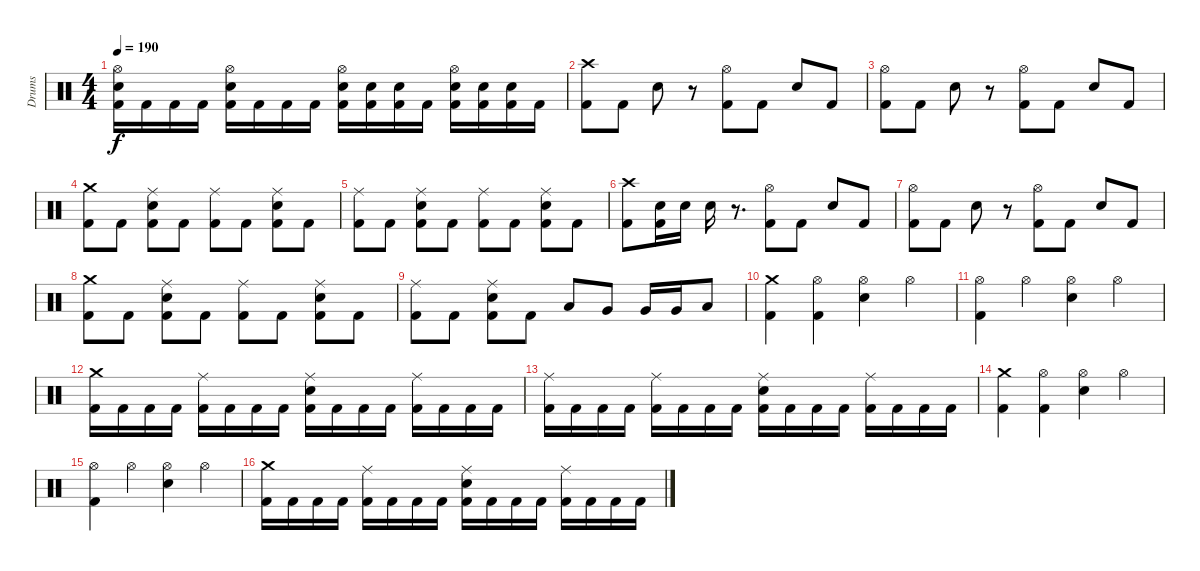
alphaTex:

\track ("Drums" "Drums") {instrument percussion}
\staff {score}
\articulation defaults
\ts (4 4)
\tempo 190
\clef neutral
\ks c
("Hi-Hat (open)" "Electric Snare (hit)" "Kick (hit) 2").16{dy f} "Kick (hit) 2".16 "Kick (hit) 2".16 "Kick (hit) 2".16 ("Hi-Hat (open)" "Electric Snare (hit)" "Kick (hit) 2").16 "Kick (hit) 2".16 "Kick (hit) 2".16 "Kick (hit) 2".16 ("Hi-Hat (open)" "Electric Snare (hit)" "Kick (hit) 2").16 ("Electric Snare (hit)" "Kick (hit) 2").16 ("Electric Snare (hit)" "Kick (hit) 2").16 "Kick (hit) 2".16 ("Hi-Hat (open)" "Electric Snare (hit)" "Kick (hit) 2").16 ("Electric Snare (hit)" "Kick (hit) 2").16 ("Electric Snare (hit)" "Kick (hit) 2").16 "Kick (hit) 2".16 |
("Crash high (hit)" "Kick (hit) 2").8 "Kick (hit) 2".8 "Electric Snare (hit)".8 r.8 ("Hi-Hat (open)" "Kick (hit) 2").8 "Kick (hit) 2".8 "Electric Snare (hit)".8 "Kick (hit) 2".8 |
("Hi-Hat (open)" "Kick (hit) 2").8 "Kick (hit) 2".8 "Electric Snare (hit)".8 r.8 ("Hi-Hat (open)" "Kick (hit) 2").8 "Kick (hit) 2".8 "Electric Snare (hit)".8 "Kick (hit) 2".8 |
("Crash medium (hit)" "Kick (hit) 2").8 "Kick (hit) 2".8 ("Ride (middle)" "Electric Snare (hit)" "Kick (hit) 2").8 "Kick (hit) 2".8 ("Ride (middle)" "Kick (hit) 2").8 "Kick (hit) 2".8 ("Ride (middle)" "Electric Snare (hit)" "Kick (hit) 2").8 "Kick (hit) 2".8 |
("Ride (middle)" "Kick (hit) 2").8 "Kick (hit) 2".8 ("Ride (middle)" "Electric Snare (hit)" "Kick (hit) 2").8 "Kick (hit) 2".8 ("Ride (middle)" "Kick (hit) 2").8 "Kick (hit) 2".8 ("Ride (middle)" "Electric Snare (hit)" "Kick (hit) 2").8 "Kick (hit) 2".8 |
("Crash high (hit)" "Kick (hit) 2").8 ("Electric Snare (hit)" "Kick (hit) 2").16 "Electric Snare (hit)".16 "Electric Snare (hit)".16 r.8{d} ("Hi-Hat (open)" "Kick (hit) 2").8 "Kick (hit) 2".8 "Electric Snare (hit)".8 "Kick (hit) 2".8 |
("Hi-Hat (open)" "Kick (hit) 2").8 "Kick (hit) 2".8 "Electric Snare (hit)".8 r.8 ("Hi-Hat (open)" "Kick (hit) 2").8 "Kick (hit) 2".8 "Electric Snare (hit)".8 "Kick (hit) 2".8 |
("Crash medium (hit)" "Kick (hit) 2").8 "Kick (hit) 2".8 ("Ride (middle)" "Electric Snare (hit)" "Kick (hit) 2").8 "Kick (hit) 2".8 ("Ride (middle)" "Kick (hit) 2").8 "Kick (hit) 2".8 ("Ride (middle)" "Electric Snare (hit)" "Kick (hit) 2").8 "Kick (hit) 2".8 |
("Ride (middle)" "Kick (hit) 2").8 "Kick (hit) 2".8 ("Ride (middle)" "Electric Snare (hit)" "Kick (hit) 2").8 "Kick (hit) 2".8 "Low Tom (hit)".8 "Very Low Tom (hit)".8 "Very Low Tom (hit)".16 "Very Low Tom (hit)".16 "Low Floor Tom (hit)".8 |
("Crash medium (hit)" "Kick (hit) 2").4 ("Hi-Hat (open)" "Kick (hit) 2").4 ("Hi-Hat (open)" "Electric Snare (hit)").4 "Hi-Hat (open)".4 |
("Hi-Hat (open)" "Kick (hit) 2").4 "Hi-Hat (open)".4 ("Hi-Hat (open)" "Electric Snare (hit)").4 "Hi-Hat (open)".4 |
("Crash medium (hit)" "Kick (hit) 2").16 "Kick (hit) 2".16 "Kick (hit) 2".16 "Kick (hit) 2".16 ("Ride (middle)" "Kick (hit) 2").16 "Kick (hit) 2".16 "Kick (hit) 2".16 "Kick (hit) 2".16 ("Ride (middle)" "Electric Snare (hit)" "Kick (hit) 2").16 "Kick (hit) 2".16 "Kick (hit) 2".16 "Kick (hit) 2".16 ("Ride (middle)" "Kick (hit) 2").16 "Kick (hit) 2".16 "Kick (hit) 2".16 "Kick (hit) 2".16 |
("Ride (middle)" "Kick (hit) 2").16 "Kick (hit) 2".16 "Kick (hit) 2".16 "Kick (hit) 2".16 ("Ride (middle)" "Kick (hit) 2").16 "Kick (hit) 2".16 "Kick (hit) 2".16 "Kick (hit) 2".16 ("Ride (middle)" "Electric Snare (hit)" "Kick (hit) 2").16 "Kick (hit) 2".16 "Kick (hit) 2".16 "Kick (hit) 2".16 ("Ride (middle)" "Kick (hit) 2").16 "Kick (hit) 2".16 "Kick (hit) 2".16 "Kick (hit) 2".16 |
("Crash medium (hit)" "Kick (hit) 2").4 ("Hi-Hat (open)" "Kick (hit) 2").4 ("Hi-Hat (open)" "Electric Snare (hit)").4 "Hi-Hat (open)".4 |
("Hi-Hat (open)" "Kick (hit) 2").4 "Hi-Hat (open)".4 ("Hi-Hat (open)" "Electric Snare (hit)").4 "Hi-Hat (open)".4 |
("Crash medium (hit)" "Kick (hit) 2").16 "Kick (hit) 2".16 "Kick (hit) 2".16 "Kick (hit) 2".16 ("Ride (middle)" "Kick (hit) 2").16 "Kick (hit) 2".16 "Kick (hit) 2".16 "Kick (hit) 2".16 ("Ride (middle)" "Electric Snare (hit)" "Kick (hit) 2").16 "Kick (hit) 2".16 "Kick (hit) 2".16 "Kick (hit) 2".16 ("Ride (middle)" "Kick (hit) 2").16 "Kick (hit) 2".16 "Kick (hit) 2".16 "Kick (hit) 2".16
